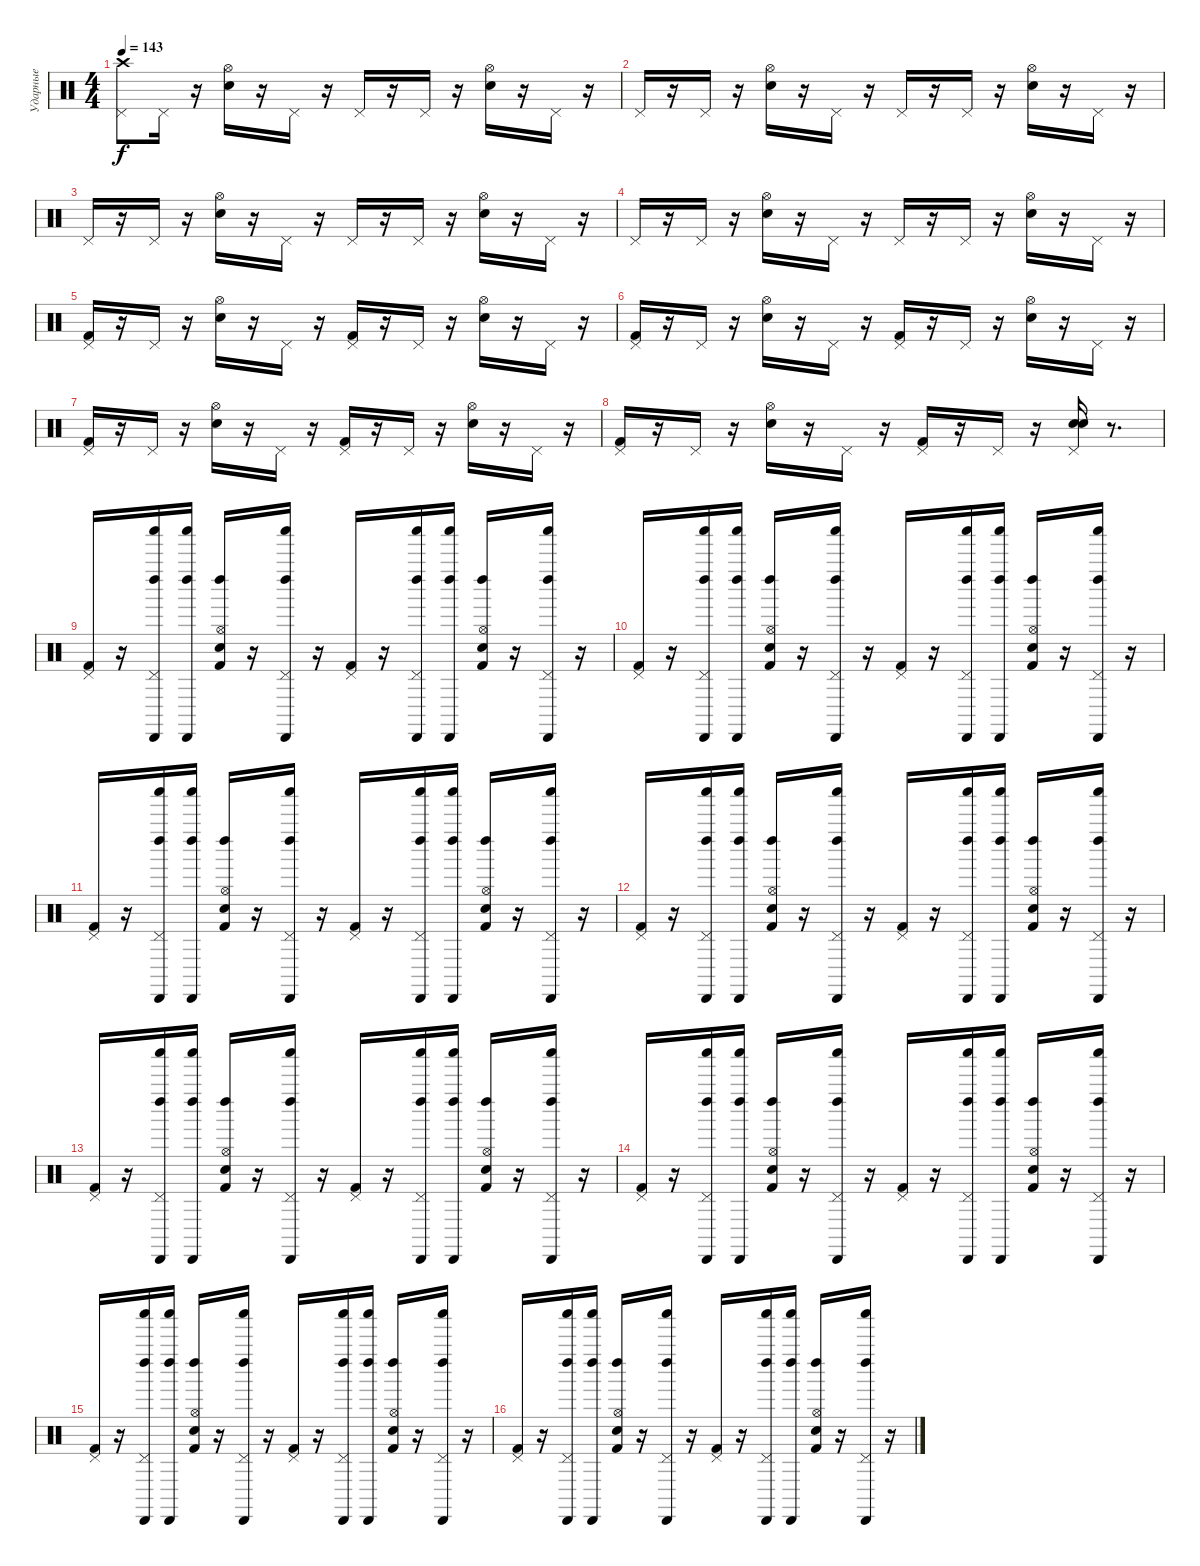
\track ("Ударные" "Ударные") {instrument percussion}
\staff {score}
\articulation defaults
\ts (4 4)
\tempo 143
\clef neutral
\ks c
("Crash high (hit)" "Pedal Hi-Hat (hit)").8{dy f} "Pedal Hi-Hat (hit)".16 r.16 ("Snare (hit) 2" "Hi-Hat (open)").16 r.16 "Pedal Hi-Hat (hit)".16 r.16 "Pedal Hi-Hat (hit)".16 r.16 "Pedal Hi-Hat (hit)".16 r.16 ("Snare (hit) 2" "Hi-Hat (open)").16 r.16 "Pedal Hi-Hat (hit)".16 r.16 |
"Pedal Hi-Hat (hit)".16 r.16 "Pedal Hi-Hat (hit)".16 r.16 ("Snare (hit) 2" "Hi-Hat (open)").16 r.16 "Pedal Hi-Hat (hit)".16 r.16 "Pedal Hi-Hat (hit)".16 r.16 "Pedal Hi-Hat (hit)".16 r.16 ("Snare (hit) 2" "Hi-Hat (open)").16 r.16 "Pedal Hi-Hat (hit)".16 r.16 |
"Pedal Hi-Hat (hit)".16 r.16 "Pedal Hi-Hat (hit)".16 r.16 ("Snare (hit) 2" "Hi-Hat (open)").16 r.16 "Pedal Hi-Hat (hit)".16 r.16 "Pedal Hi-Hat (hit)".16 r.16 "Pedal Hi-Hat (hit)".16 r.16 ("Snare (hit) 2" "Hi-Hat (open)").16 r.16 "Pedal Hi-Hat (hit)".16 r.16 |
"Pedal Hi-Hat (hit)".16 r.16 "Pedal Hi-Hat (hit)".16 r.16 ("Snare (hit) 2" "Hi-Hat (open)").16 r.16 "Pedal Hi-Hat (hit)".16 r.16 "Pedal Hi-Hat (hit)".16 r.16 "Pedal Hi-Hat (hit)".16 r.16 ("Snare (hit) 2" "Hi-Hat (open)").16 r.16 "Pedal Hi-Hat (hit)".16 r.16 |
("Kick (hit) 2" "Pedal Hi-Hat (hit)").16 r.16 "Pedal Hi-Hat (hit)".16 r.16 ("Snare (hit) 2" "Hi-Hat (open)").16 r.16 "Pedal Hi-Hat (hit)".16 r.16 ("Kick (hit) 2" "Pedal Hi-Hat (hit)").16 r.16 "Pedal Hi-Hat (hit)".16 r.16 ("Snare (hit) 2" "Hi-Hat (open)").16 r.16 "Pedal Hi-Hat (hit)".16 r.16 |
("Kick (hit) 2" "Pedal Hi-Hat (hit)").16 r.16 "Pedal Hi-Hat (hit)".16 r.16 ("Snare (hit) 2" "Hi-Hat (open)").16 r.16 "Pedal Hi-Hat (hit)".16 r.16 ("Kick (hit) 2" "Pedal Hi-Hat (hit)").16 r.16 "Pedal Hi-Hat (hit)".16 r.16 ("Snare (hit) 2" "Hi-Hat (open)").16 r.16 "Pedal Hi-Hat (hit)".16 r.16 |
("Kick (hit) 2" "Pedal Hi-Hat (hit)").16 r.16 "Pedal Hi-Hat (hit)".16 r.16 ("Snare (hit) 2" "Hi-Hat (open)").16 r.16 "Pedal Hi-Hat (hit)".16 r.16 ("Kick (hit) 2" "Pedal Hi-Hat (hit)").16 r.16 "Pedal Hi-Hat (hit)".16 r.16 ("Snare (hit) 2" "Hi-Hat (open)").16 r.16 "Pedal Hi-Hat (hit)".16 r.16 |
("Kick (hit) 2" "Pedal Hi-Hat (hit)").16 r.16 "Pedal Hi-Hat (hit)".16 r.16 ("Snare (hit) 2" "Hi-Hat (open)").16 r.16 "Pedal Hi-Hat (hit)".16 r.16 ("Kick (hit) 2" "Pedal Hi-Hat (hit)").16 r.16 "Pedal Hi-Hat (hit)".16 r.16 ("Pedal Hi-Hat (hit)" "Electric Snare (hit)" "Snare (hit) 2").16 r.8{d} |
("Kick (hit) 2" "Pedal Hi-Hat (hit)").16 r.16 ("Pedal Hi-Hat (hit)" "Left Maraca (hit)" "Shaker (hit)" "Cabasa (hit)").16 ("Left Maraca (hit)" "Shaker (hit)" "Cabasa (hit)").16 ("Snare (hit) 2" "Kick (hit) 2" "Hi-Hat (open)" "Left Maraca (hit)").16 r.16 ("Pedal Hi-Hat (hit)" "Left Maraca (hit)" "Shaker (hit)" "Cabasa (hit)").16 r.16 ("Kick (hit) 2" "Pedal Hi-Hat (hit)").16 r.16 ("Pedal Hi-Hat (hit)" "Left Maraca (hit)" "Shaker (hit)" "Cabasa (hit)").16 ("Left Maraca (hit)" "Shaker (hit)" "Cabasa (hit)").16 ("Snare (hit) 2" "Kick (hit) 2" "Hi-Hat (open)" "Left Maraca (hit)").16 r.16 ("Pedal Hi-Hat (hit)" "Left Maraca (hit)" "Shaker (hit)" "Cabasa (hit)").16 r.16 |
("Kick (hit) 2" "Pedal Hi-Hat (hit)").16 r.16 ("Pedal Hi-Hat (hit)" "Left Maraca (hit)" "Shaker (hit)" "Cabasa (hit)").16 ("Left Maraca (hit)" "Shaker (hit)" "Cabasa (hit)").16 ("Snare (hit) 2" "Kick (hit) 2" "Hi-Hat (open)" "Left Maraca (hit)").16 r.16 ("Pedal Hi-Hat (hit)" "Left Maraca (hit)" "Shaker (hit)" "Cabasa (hit)").16 r.16 ("Kick (hit) 2" "Pedal Hi-Hat (hit)").16 r.16 ("Pedal Hi-Hat (hit)" "Left Maraca (hit)" "Shaker (hit)" "Cabasa (hit)").16 ("Left Maraca (hit)" "Shaker (hit)" "Cabasa (hit)").16 ("Kick (hit) 2" "Snare (hit) 2" "Hi-Hat (open)" "Left Maraca (hit)").16 r.16 ("Pedal Hi-Hat (hit)" "Left Maraca (hit)" "Shaker (hit)" "Cabasa (hit)").16 r.16 |
("Kick (hit) 2" "Pedal Hi-Hat (hit)").16 r.16 ("Pedal Hi-Hat (hit)" "Left Maraca (hit)" "Shaker (hit)" "Cabasa (hit)").16 ("Left Maraca (hit)" "Shaker (hit)" "Cabasa (hit)").16 ("Snare (hit) 2" "Kick (hit) 2" "Hi-Hat (open)" "Left Maraca (hit)").16 r.16 ("Pedal Hi-Hat (hit)" "Left Maraca (hit)" "Shaker (hit)" "Cabasa (hit)").16 r.16 ("Kick (hit) 2" "Pedal Hi-Hat (hit)").16 r.16 ("Pedal Hi-Hat (hit)" "Left Maraca (hit)" "Shaker (hit)" "Cabasa (hit)").16 ("Left Maraca (hit)" "Shaker (hit)" "Cabasa (hit)").16 ("Snare (hit) 2" "Kick (hit) 2" "Hi-Hat (open)" "Left Maraca (hit)").16 r.16 ("Pedal Hi-Hat (hit)" "Left Maraca (hit)" "Shaker (hit)" "Cabasa (hit)").16 r.16 |
("Kick (hit) 2" "Pedal Hi-Hat (hit)").16 r.16 ("Pedal Hi-Hat (hit)" "Left Maraca (hit)" "Shaker (hit)" "Cabasa (hit)").16 ("Left Maraca (hit)" "Shaker (hit)" "Cabasa (hit)").16 ("Snare (hit) 2" "Kick (hit) 2" "Hi-Hat (open)" "Left Maraca (hit)").16 r.16 ("Pedal Hi-Hat (hit)" "Left Maraca (hit)" "Shaker (hit)" "Cabasa (hit)").16 r.16 ("Kick (hit) 2" "Pedal Hi-Hat (hit)").16 r.16 ("Pedal Hi-Hat (hit)" "Left Maraca (hit)" "Shaker (hit)" "Cabasa (hit)").16 ("Left Maraca (hit)" "Shaker (hit)" "Cabasa (hit)").16 ("Kick (hit) 2" "Snare (hit) 2" "Hi-Hat (open)" "Left Maraca (hit)").16 r.16 ("Pedal Hi-Hat (hit)" "Left Maraca (hit)" "Shaker (hit)" "Cabasa (hit)").16 r.16 |
("Kick (hit) 2" "Pedal Hi-Hat (hit)").16 r.16 ("Pedal Hi-Hat (hit)" "Left Maraca (hit)" "Shaker (hit)" "Cabasa (hit)").16 ("Left Maraca (hit)" "Shaker (hit)" "Cabasa (hit)").16 ("Snare (hit) 2" "Kick (hit) 2" "Hi-Hat (open)" "Left Maraca (hit)").16 r.16 ("Pedal Hi-Hat (hit)" "Left Maraca (hit)" "Shaker (hit)" "Cabasa (hit)").16 r.16 ("Kick (hit) 2" "Pedal Hi-Hat (hit)").16 r.16 ("Pedal Hi-Hat (hit)" "Left Maraca (hit)" "Shaker (hit)" "Cabasa (hit)").16 ("Left Maraca (hit)" "Shaker (hit)" "Cabasa (hit)").16 ("Kick (hit) 2" "Snare (hit) 2" "Hi-Hat (open)" "Left Maraca (hit)").16 r.16 ("Pedal Hi-Hat (hit)" "Left Maraca (hit)" "Shaker (hit)" "Cabasa (hit)").16 r.16 |
("Kick (hit) 2" "Pedal Hi-Hat (hit)").16 r.16 ("Pedal Hi-Hat (hit)" "Left Maraca (hit)" "Shaker (hit)" "Cabasa (hit)").16 ("Left Maraca (hit)" "Shaker (hit)" "Cabasa (hit)").16 ("Snare (hit) 2" "Kick (hit) 2" "Hi-Hat (open)" "Left Maraca (hit)").16 r.16 ("Pedal Hi-Hat (hit)" "Left Maraca (hit)" "Shaker (hit)" "Cabasa (hit)").16 r.16 ("Kick (hit) 2" "Pedal Hi-Hat (hit)").16 r.16 ("Pedal Hi-Hat (hit)" "Left Maraca (hit)" "Shaker (hit)" "Cabasa (hit)").16 ("Left Maraca (hit)" "Shaker (hit)" "Cabasa (hit)").16 ("Snare (hit) 2" "Kick (hit) 2" "Hi-Hat (open)" "Left Maraca (hit)").16 r.16 ("Pedal Hi-Hat (hit)" "Left Maraca (hit)" "Shaker (hit)" "Cabasa (hit)").16 r.16 |
("Kick (hit) 2" "Pedal Hi-Hat (hit)").16 r.16 ("Pedal Hi-Hat (hit)" "Left Maraca (hit)" "Shaker (hit)" "Cabasa (hit)").16 ("Left Maraca (hit)" "Shaker (hit)" "Cabasa (hit)").16 ("Kick (hit) 2" "Snare (hit) 2" "Hi-Hat (open)" "Left Maraca (hit)").16 r.16 ("Pedal Hi-Hat (hit)" "Left Maraca (hit)" "Shaker (hit)" "Cabasa (hit)").16 r.16 ("Kick (hit) 2" "Pedal Hi-Hat (hit)").16 r.16 ("Pedal Hi-Hat (hit)" "Left Maraca (hit)" "Shaker (hit)" "Cabasa (hit)").16 ("Left Maraca (hit)" "Shaker (hit)" "Cabasa (hit)").16 ("Snare (hit) 2" "Kick (hit) 2" "Hi-Hat (open)" "Left Maraca (hit)").16 r.16 ("Pedal Hi-Hat (hit)" "Left Maraca (hit)" "Shaker (hit)" "Cabasa (hit)").16 r.16 |
("Kick (hit) 2" "Pedal Hi-Hat (hit)").16 r.16 ("Pedal Hi-Hat (hit)" "Left Maraca (hit)" "Shaker (hit)" "Cabasa (hit)").16 ("Left Maraca (hit)" "Shaker (hit)" "Cabasa (hit)").16 ("Kick (hit) 2" "Snare (hit) 2" "Hi-Hat (open)" "Left Maraca (hit)").16 r.16 ("Pedal Hi-Hat (hit)" "Left Maraca (hit)" "Shaker (hit)" "Cabasa (hit)").16 r.16 ("Kick (hit) 2" "Pedal Hi-Hat (hit)").16 r.16 ("Pedal Hi-Hat (hit)" "Left Maraca (hit)" "Shaker (hit)" "Cabasa (hit)").16 ("Left Maraca (hit)" "Shaker (hit)" "Cabasa (hit)").16 ("Snare (hit) 2" "Kick (hit) 2" "Hi-Hat (open)" "Left Maraca (hit)").16 r.16 ("Pedal Hi-Hat (hit)" "Left Maraca (hit)" "Shaker (hit)" "Cabasa (hit)").16 r.16
